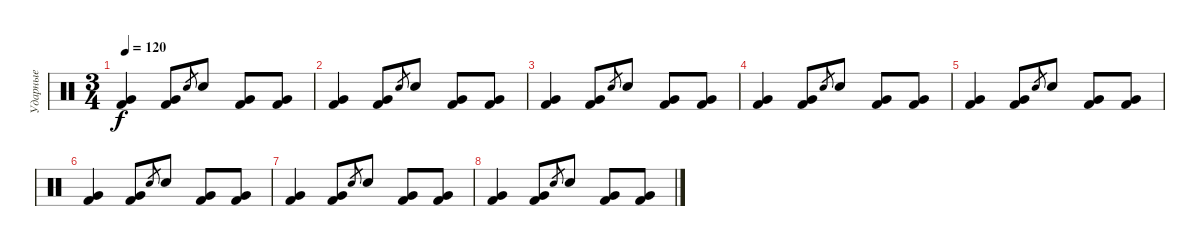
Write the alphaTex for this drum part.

\track ("Ударные" "Ударные") {instrument percussion}
\staff {score}
\articulation defaults
\ts (3 4)
\tempo 120
\clef neutral
\ks c
("Very Low Tom (hit)" "Kick (hit) 2").4{dy f volume 8} ("Very Low Tom (hit)" "Kick (hit) 2").8 "Electric Snare (hit)".8{gr} "Electric Snare (hit)".8 ("Very Low Tom (hit)" "Kick (hit) 2").8 ("Very Low Tom (hit)" "Kick (hit) 2").8 |
("Very Low Tom (hit)" "Kick (hit) 2").4 ("Very Low Tom (hit)" "Kick (hit) 2").8 "Electric Snare (hit)".8{gr} "Electric Snare (hit)".8 ("Very Low Tom (hit)" "Kick (hit) 2").8 ("Very Low Tom (hit)" "Kick (hit) 2").8 |
("Very Low Tom (hit)" "Kick (hit) 2").4 ("Very Low Tom (hit)" "Kick (hit) 2").8 "Electric Snare (hit)".8{gr} "Electric Snare (hit)".8 ("Very Low Tom (hit)" "Kick (hit) 2").8 ("Very Low Tom (hit)" "Kick (hit) 2").8 |
("Very Low Tom (hit)" "Kick (hit) 2").4 ("Very Low Tom (hit)" "Kick (hit) 2").8 "Electric Snare (hit)".8{gr} "Electric Snare (hit)".8 ("Very Low Tom (hit)" "Kick (hit) 2").8 ("Very Low Tom (hit)" "Kick (hit) 2").8 |
("Very Low Tom (hit)" "Kick (hit) 2").4{volume 0} ("Very Low Tom (hit)" "Kick (hit) 2").8 "Electric Snare (hit)".8{gr} "Electric Snare (hit)".8 ("Very Low Tom (hit)" "Kick (hit) 2").8 ("Very Low Tom (hit)" "Kick (hit) 2").8 |
("Very Low Tom (hit)" "Kick (hit) 2").4 ("Very Low Tom (hit)" "Kick (hit) 2").8 "Electric Snare (hit)".8{gr} "Electric Snare (hit)".8 ("Very Low Tom (hit)" "Kick (hit) 2").8 ("Very Low Tom (hit)" "Kick (hit) 2").8 |
("Very Low Tom (hit)" "Kick (hit) 2").4 ("Very Low Tom (hit)" "Kick (hit) 2").8 "Electric Snare (hit)".8{gr} "Electric Snare (hit)".8 ("Very Low Tom (hit)" "Kick (hit) 2").8 ("Very Low Tom (hit)" "Kick (hit) 2").8 |
("Very Low Tom (hit)" "Kick (hit) 2").4 ("Very Low Tom (hit)" "Kick (hit) 2").8 "Electric Snare (hit)".8{gr} "Electric Snare (hit)".8 ("Very Low Tom (hit)" "Kick (hit) 2").8 ("Very Low Tom (hit)" "Kick (hit) 2").8
